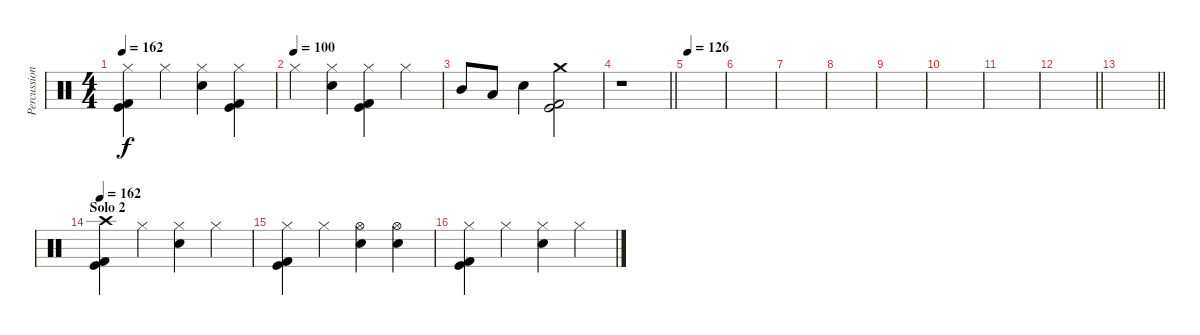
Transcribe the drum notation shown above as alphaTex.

\track ("Percussion" "Percussion") {instrument percussion}
\staff {score}
\articulation defaults
\ts (4 4)
\section ("" "")
\tempo 162
\clef neutral
\ks c
("Hi-Hat (closed)" "Kick (hit)" "Kick (hit) 2").4{dy f} "Hi-Hat (closed)".4 ("Hi-Hat (closed)" "Electric Snare (hit)").4 ("Hi-Hat (closed)" "Kick (hit)" "Kick (hit) 2").4 |
\tempo (100)
"Hi-Hat (closed)".4 ("Hi-Hat (closed)" "Electric Snare (hit)").4 ("Hi-Hat (closed)" "Kick (hit)" "Kick (hit) 2").4 "Hi-Hat (closed)".4 |
"Mid Tom (hit)".8 "Low Tom (hit)".8 "Electric Snare (hit)".4 ("Crash medium (hit)" "Kick (hit)" "Kick (hit) 2").2 |
\barLineRight lightlight
r.1 |
\section ("" "")
\tempo 126
|
|
|
|
|
|
|
\barLineRight lightlight
|
\barLineRight lightlight
|
\section ("" "Solo 2")
\tempo 162
("Crash high (hit)" "Kick (hit)" "Kick (hit) 2").4 "Hi-Hat (closed)".4 ("Hi-Hat (closed)" "Electric Snare (hit)").4 "Hi-Hat (closed)".4 |
("Hi-Hat (closed)" "Kick (hit)" "Kick (hit) 2").4 "Hi-Hat (closed)".4 ("Hi-Hat (open)" "Electric Snare (hit)").4 ("Hi-Hat (open)" "Electric Snare (hit)").4 |
("Hi-Hat (closed)" "Kick (hit)" "Kick (hit) 2").4 "Hi-Hat (closed)".4 ("Hi-Hat (closed)" "Electric Snare (hit)").4 "Hi-Hat (closed)".4
